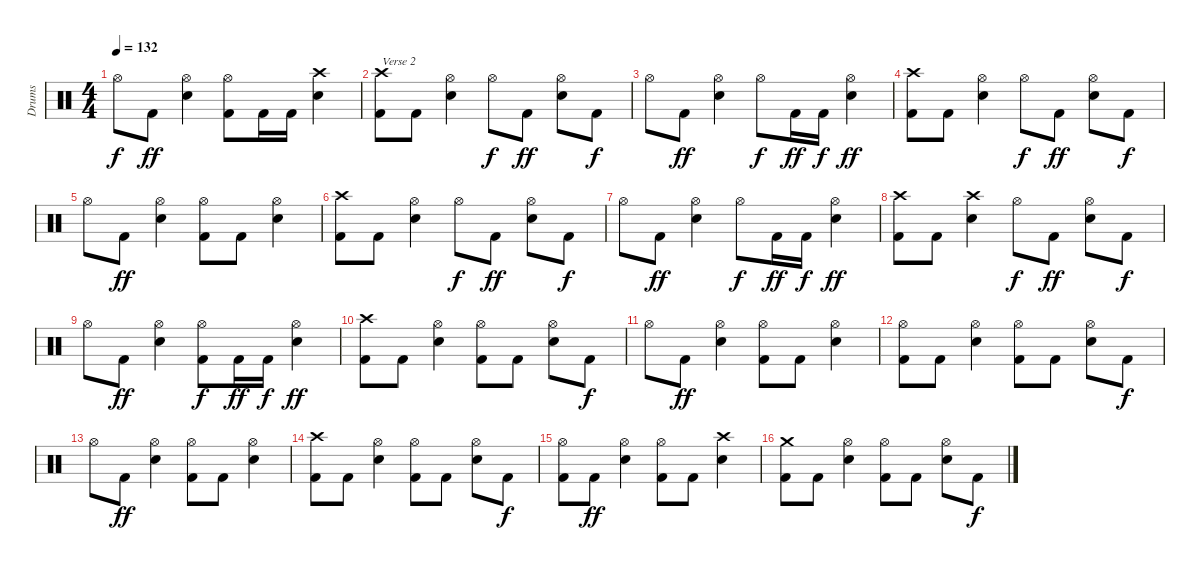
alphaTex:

\track ("Drums" "Drums") {instrument percussion}
\staff {score}
\articulation defaults
\ts (4 4)
\tempo 132
\clef neutral
\ks c "Hi-Hat (open)".8{dy f} "Kick (hit) 2".8{dy ff}
("Hi-Hat (open)" "Snare (hit) 2").4 ("Hi-Hat (open)" "Kick (hit) 2").8 "Kick (hit) 2".16 "Kick (hit) 2".16 ("Crash high (hit)" "Snare (hit) 2").4 |
("Crash high (hit)" "Kick (hit) 2").8{txt "Verse 2"} "Kick (hit) 2".8 ("Hi-Hat (open)" "Snare (hit) 2").4 "Hi-Hat (open)".8{dy f} "Kick (hit) 2".8{dy ff} ("Hi-Hat (open)" "Snare (hit) 2").8 "Kick (hit) 2".8{dy f} |
"Hi-Hat (open)".8 "Kick (hit) 2".8{dy ff} ("Hi-Hat (open)" "Snare (hit) 2").4 "Hi-Hat (open)".8{dy f} "Kick (hit) 2".16{dy ff} "Kick (hit) 2".16{dy f} ("Hi-Hat (open)" "Snare (hit) 2").4{dy ff} |
("Crash high (hit)" "Kick (hit) 2").8 "Kick (hit) 2".8 ("Hi-Hat (open)" "Snare (hit) 2").4 "Hi-Hat (open)".8{dy f} "Kick (hit) 2".8{dy ff} ("Hi-Hat (open)" "Snare (hit) 2").8 "Kick (hit) 2".8{dy f} |
"Hi-Hat (open)".8 "Kick (hit) 2".8{dy ff} ("Hi-Hat (open)" "Snare (hit) 2").4 ("Hi-Hat (open)" "Kick (hit) 2").8 "Kick (hit) 2".8 ("Hi-Hat (open)" "Snare (hit) 2").4 |
("Crash high (hit)" "Kick (hit) 2").8 "Kick (hit) 2".8 ("Hi-Hat (open)" "Snare (hit) 2").4 "Hi-Hat (open)".8{dy f} "Kick (hit) 2".8{dy ff} ("Hi-Hat (open)" "Snare (hit) 2").8 "Kick (hit) 2".8{dy f} |
"Hi-Hat (open)".8 "Kick (hit) 2".8{dy ff} ("Hi-Hat (open)" "Snare (hit) 2").4 "Hi-Hat (open)".8{dy f} "Kick (hit) 2".16{dy ff} "Kick (hit) 2".16{dy f} ("Hi-Hat (open)" "Snare (hit) 2").4{dy ff} |
("Crash high (hit)" "Kick (hit) 2").8 "Kick (hit) 2".8 ("Crash high (hit)" "Snare (hit) 2").4 "Hi-Hat (open)".8{dy f} "Kick (hit) 2".8{dy ff} ("Hi-Hat (open)" "Snare (hit) 2").8 "Kick (hit) 2".8{dy f} |
"Hi-Hat (open)".8 "Kick (hit) 2".8{dy ff} ("Hi-Hat (open)" "Snare (hit) 2").4 ("Hi-Hat (open)" "Kick (hit) 2").8{dy f} "Kick (hit) 2".16{dy ff} "Kick (hit) 2".16{dy f} ("Hi-Hat (open)" "Snare (hit) 2").4{dy ff} |
("Crash high (hit)" "Kick (hit) 2").8 "Kick (hit) 2".8 ("Hi-Hat (open)" "Snare (hit) 2").4 ("Hi-Hat (open)" "Kick (hit) 2").8 "Kick (hit) 2".8 ("Hi-Hat (open)" "Snare (hit) 2").8 "Kick (hit) 2".8{dy f} |
"Hi-Hat (open)".8 "Kick (hit) 2".8{dy ff} ("Hi-Hat (open)" "Snare (hit) 2").4 ("Hi-Hat (open)" "Kick (hit) 2").8 "Kick (hit) 2".8 ("Hi-Hat (open)" "Snare (hit) 2").4 |
("Hi-Hat (open)" "Kick (hit) 2").8 "Kick (hit) 2".8 ("Hi-Hat (open)" "Snare (hit) 2").4 ("Hi-Hat (open)" "Kick (hit) 2").8 "Kick (hit) 2".8 ("Hi-Hat (open)" "Snare (hit) 2").8 "Kick (hit) 2".8{dy f} |
"Hi-Hat (open)".8 "Kick (hit) 2".8{dy ff} ("Hi-Hat (open)" "Snare (hit) 2").4 ("Hi-Hat (open)" "Kick (hit) 2").8 "Kick (hit) 2".8 ("Hi-Hat (open)" "Snare (hit) 2").4 |
("Crash high (hit)" "Kick (hit) 2").8 "Kick (hit) 2".8 ("Hi-Hat (open)" "Snare (hit) 2").4 ("Hi-Hat (open)" "Kick (hit) 2").8 "Kick (hit) 2".8 ("Hi-Hat (open)" "Snare (hit) 2").8 "Kick (hit) 2".8{dy f} |
("Hi-Hat (open)" "Kick (hit) 2").8 "Kick (hit) 2".8{dy ff} ("Hi-Hat (open)" "Snare (hit) 2").4 ("Hi-Hat (open)" "Kick (hit) 2").8 "Kick (hit) 2".8 ("Crash high (hit)" "Snare (hit) 2").4 |
("Crash medium (hit)" "Kick (hit) 2").8 "Kick (hit) 2".8 ("Hi-Hat (open)" "Snare (hit) 2").4 ("Hi-Hat (open)" "Kick (hit) 2").8 "Kick (hit) 2".8 ("Hi-Hat (open)" "Snare (hit) 2").8 "Kick (hit) 2".8{dy f}
